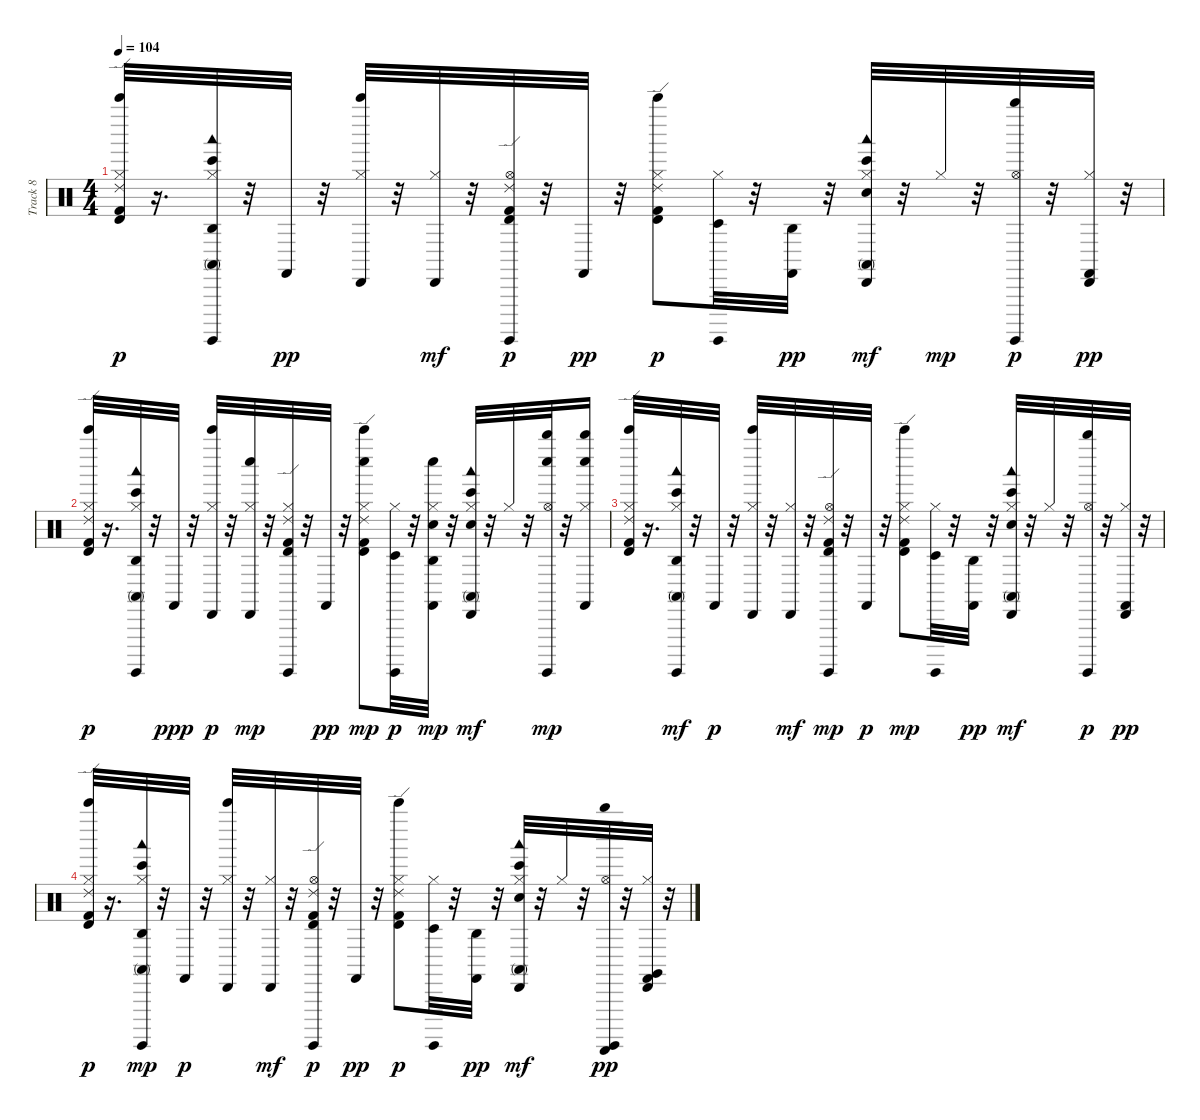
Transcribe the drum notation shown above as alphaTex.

\track ("Track 8" "Track 8") {instrument percussion}
\staff {score}
\articulation defaults
\ts (4 4)
\tempo 104
\clef neutral
\ks c
("Ride (edge) 2" "Timbale high (hit)" "Kick (hit) 2" "Hi-Hat (closed)" "Bell Tree (hit)").32{dy p} r.16{d} ("Bongo High (hit)" "Agogo high (hit)" "Conga high (mute)" "Hi-Hat (closed)" "Woodblock low (hit)" "Surdo (hit)").32 r.32 "Castanets (hit)".32{dy pp} r.32 ("Cabasa (hit)" "Hi-Hat (closed)" "Bell Tree (hit)").32 r.32 ("Cabasa (hit)" "Hi-Hat (closed)").32{dy mf} r.32 ("Ride (edge) 2" "Timbale high (hit)" "Kick (hit) 2" "Hi-Hat (open)" "Surdo (hit)").32{dy p} r.32 "Castanets (hit)".32{dy pp} r.32 ("Ride (edge) 2" "Timbale high (hit)" "Kick (hit) 2" "Hi-Hat (closed)" "Bell Tree (hit)").8{dy p} ("Timbale low (hit)" "Hi-Hat (closed)" "Surdo (hit)").32 r.32 ("Agogo high (hit)" "Castanets (hit)").32{dy pp} r.32 ("Conga high (mute)" "Cabasa (hit)" "Bongo High (hit)" "Electric Snare (hit)" "Hi-Hat (closed)" "Woodblock low (hit)").32{dy mf} r.32 "Hi-Hat (closed)".32{dy mp} r.32 ("Whistle high (hit)" "Hi-Hat (open)" "Surdo (hit)").32{dy p} r.32 ("Cabasa (hit)" "Hi-Hat (closed)" "Castanets (hit)").32{dy pp} r.32 |
("Ride (edge) 2" "Timbale high (hit)" "Kick (hit) 2" "Hi-Hat (closed)" "Bell Tree (hit)").32{dy p} r.16{d} ("Conga high (mute)" "Agogo high (hit)" "Bongo High (hit)" "Hi-Hat (closed)" "Woodblock low (hit)" "Surdo (hit)").32 r.32 "Castanets (hit)".32{dy ppp} r.32 ("Cabasa (hit)" "Hi-Hat (closed)" "Bell Tree (hit)").32{dy p} r.32 ("Cabasa (hit)" "Hi-Hat (closed)" "Whistle low (hit)").32{dy mp} r.32 ("Ride (edge) 2" "Timbale high (hit)" "Kick (hit) 2" "Hi-Hat (closed)" "Surdo (hit)").32 r.32 "Castanets (hit)".32{dy pp} r.32 ("Ride (edge) 2" "Timbale high (hit)" "Kick (hit) 2" "Hi-Hat (closed)" "Bell Tree (hit)" "Whistle low (hit)").8{dy mp} ("Timbale low (hit)" "Hi-Hat (closed)" "Surdo (hit)").32{dy p} r.32 ("Agogo high (hit)" "Electric Snare (hit)" "Hi-Hat (closed)" "Castanets (hit)" "Whistle low (hit)").32{dy mp} r.32 ("Bongo High (hit)" "Cabasa (hit)" "Conga high (mute)" "Hi-Hat (closed)" "Electric Snare (hit)" "Woodblock low (hit)").32{dy mf} r.32 "Hi-Hat (closed)".32 r.32 ("Whistle high (hit)" "Hi-Hat (open)" "Surdo (hit)" "Whistle low (hit)").32{dy mp} r.32 ("Whistle high (hit)" "Hi-Hat (closed)" "Castanets (hit)" "Whistle low (hit)").16 |
("Ride (edge) 2" "Timbale high (hit)" "Kick (hit) 2" "Hi-Hat (closed)" "Bell Tree (hit)").32 r.16{d} ("Bongo High (hit)" "Agogo high (hit)" "Conga high (mute)" "Hi-Hat (closed)" "Surdo (hit)" "Woodblock low (hit)").32{dy mf} r.32 "Castanets (hit)".32{dy p} r.32 ("Cabasa (hit)" "Hi-Hat (closed)" "Bell Tree (hit)").32 r.32 ("Cabasa (hit)" "Hi-Hat (closed)").32{dy mf} r.32 ("Ride (edge) 2" "Timbale high (hit)" "Kick (hit) 2" "Hi-Hat (open)" "Surdo (hit)").32{dy mp} r.32 "Castanets (hit)".32{dy p} r.32 ("Ride (edge) 2" "Timbale high (hit)" "Kick (hit) 2" "Hi-Hat (closed)" "Bell Tree (hit)").8{dy mp} ("Timbale low (hit)" "Hi-Hat (closed)" "Surdo (hit)").32 r.32 ("Agogo high (hit)" "Castanets (hit)").32{dy pp} r.32 ("Bongo High (hit)" "Cabasa (hit)" "Conga high (mute)" "Electric Snare (hit)" "Hi-Hat (closed)" "Woodblock low (hit)").32{dy mf} r.32 "Hi-Hat (closed)".32 r.32 ("Whistle high (hit)" "Hi-Hat (open)" "Surdo (hit)").32{dy p} r.32 ("Cabasa (hit)" "Hi-Hat (closed)" "Castanets (hit)").32{dy pp} r.32 |
("Ride (edge) 2" "Timbale high (hit)" "Kick (hit) 2" "Hi-Hat (closed)" "Bell Tree (hit)").32{dy p} r.16{d} ("Bongo High (hit)" "Agogo high (hit)" "Conga high (mute)" "Hi-Hat (closed)" "Woodblock low (hit)" "Surdo (hit)").32{dy mp} r.32 "Castanets (hit)".32{dy p} r.32 ("Cabasa (hit)" "Hi-Hat (closed)" "Bell Tree (hit)").32 r.32 ("Cabasa (hit)" "Hi-Hat (closed)").32{dy mf} r.32 ("Ride (edge) 2" "Timbale high (hit)" "Kick (hit) 2" "Hi-Hat (open)" "Surdo (hit)").32{dy p} r.32 "Castanets (hit)".32{dy pp} r.32 ("Ride (edge) 2" "Timbale high (hit)" "Kick (hit) 2" "Hi-Hat (closed)" "Bell Tree (hit)").8{dy p} ("Timbale low (hit)" "Hi-Hat (closed)" "Surdo (hit)").32 r.32 ("Agogo high (hit)" "Castanets (hit)").32{dy pp} r.32 ("Bongo High (hit)" "Cabasa (hit)" "Conga high (mute)" "Electric Snare (hit)" "Hi-Hat (closed)" "Woodblock low (hit)").32{dy mf} r.32 "Hi-Hat (closed)".32 r.32 ("Whistle high (hit)" "Hi-Hat (open)" "Surdo (hit)" "Guiro (scrap-return)").32{dy pp} r.32 ("Cabasa (hit)" "Hi-Hat (closed)" "Castanets (hit)" "Claves (hit)").32 r.32
